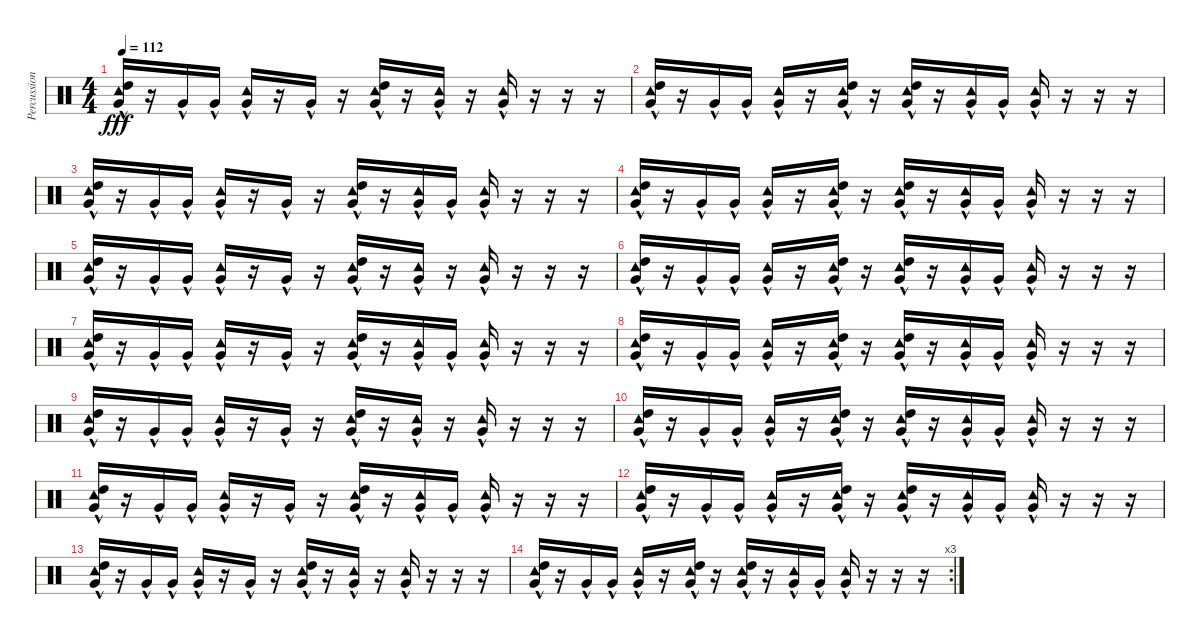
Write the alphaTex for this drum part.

\track ("Percussion" "Percussion") {instrument percussion}
\staff {score}
\articulation defaults
\ts (4 4)
\tempo 112
\clef neutral
\ks c
("Tambourine (hit)" "High Tom (hit)"{hac} "Very Low Tom (hit)"{hac}).16{dy fff} r.16 "Very Low Tom (hit)"{hac}.16 "Very Low Tom (hit)"{hac}.16 ("Tambourine (hit)" "Very Low Tom (hit)"{hac}).16 r.16 "Very Low Tom (hit)"{hac}.16 r.16 ("Tambourine (hit)" "High Tom (hit)"{hac} "Very Low Tom (hit)"{hac}).16 r.16 ("Tambourine (hit)" "Very Low Tom (hit)"{hac}).16 r.16 ("Tambourine (hit)" "Very Low Tom (hit)"{hac}).16 r.16 r.16 r.16 |
("Tambourine (hit)" "High Tom (hit)"{hac} "Very Low Tom (hit)"{hac}).16 r.16 "Very Low Tom (hit)"{hac}.16 "Very Low Tom (hit)"{hac}.16 ("Tambourine (hit)" "Very Low Tom (hit)"{hac}).16 r.16 ("Tambourine (hit)" "High Tom (hit)"{hac} "Very Low Tom (hit)"{hac}).16 r.16 ("Tambourine (hit)" "High Tom (hit)"{hac} "Very Low Tom (hit)"{hac}).16 r.16 ("Tambourine (hit)" "Very Low Tom (hit)"{hac}).16 "Very Low Tom (hit)"{hac}.16 ("Tambourine (hit)" "Very Low Tom (hit)"{hac}).16 r.16 r.16 r.16 |
("Tambourine (hit)" "High Tom (hit)"{hac} "Very Low Tom (hit)"{hac}).16 r.16 "Very Low Tom (hit)"{hac}.16 "Very Low Tom (hit)"{hac}.16 ("Tambourine (hit)" "Very Low Tom (hit)"{hac}).16 r.16 "Very Low Tom (hit)"{hac}.16 r.16 ("Tambourine (hit)" "High Tom (hit)"{hac} "Very Low Tom (hit)"{hac}).16 r.16 ("Tambourine (hit)" "Very Low Tom (hit)"{hac}).16 "Very Low Tom (hit)"{hac}.16 ("Tambourine (hit)" "Very Low Tom (hit)"{hac}).16 r.16 r.16 r.16 |
("Tambourine (hit)" "High Tom (hit)"{hac} "Very Low Tom (hit)"{hac}).16 r.16 "Very Low Tom (hit)"{hac}.16 "Very Low Tom (hit)"{hac}.16 ("Tambourine (hit)" "Very Low Tom (hit)"{hac}).16 r.16 ("Tambourine (hit)" "High Tom (hit)"{hac} "Very Low Tom (hit)"{hac}).16 r.16 ("Tambourine (hit)" "High Tom (hit)"{hac} "Very Low Tom (hit)"{hac}).16 r.16 ("Tambourine (hit)" "Very Low Tom (hit)"{hac}).16 "Very Low Tom (hit)"{hac}.16 ("Tambourine (hit)" "Very Low Tom (hit)"{hac}).16 r.16 r.16 r.16 |
("Tambourine (hit)" "High Tom (hit)"{hac} "Very Low Tom (hit)"{hac}).16 r.16 "Very Low Tom (hit)"{hac}.16 "Very Low Tom (hit)"{hac}.16 ("Tambourine (hit)" "Very Low Tom (hit)"{hac}).16 r.16 "Very Low Tom (hit)"{hac}.16 r.16 ("Tambourine (hit)" "High Tom (hit)"{hac} "Very Low Tom (hit)"{hac}).16 r.16 ("Tambourine (hit)" "Very Low Tom (hit)"{hac}).16 r.16 ("Tambourine (hit)" "Very Low Tom (hit)"{hac}).16 r.16 r.16 r.16 |
("Tambourine (hit)" "High Tom (hit)"{hac} "Very Low Tom (hit)"{hac}).16 r.16 "Very Low Tom (hit)"{hac}.16 "Very Low Tom (hit)"{hac}.16 ("Tambourine (hit)" "Very Low Tom (hit)"{hac}).16 r.16 ("Tambourine (hit)" "High Tom (hit)"{hac} "Very Low Tom (hit)"{hac}).16 r.16 ("Tambourine (hit)" "High Tom (hit)"{hac} "Very Low Tom (hit)"{hac}).16 r.16 ("Tambourine (hit)" "Very Low Tom (hit)"{hac}).16 "Very Low Tom (hit)"{hac}.16 ("Tambourine (hit)" "Very Low Tom (hit)"{hac}).16 r.16 r.16 r.16 |
("Tambourine (hit)" "High Tom (hit)"{hac} "Very Low Tom (hit)"{hac}).16 r.16 "Very Low Tom (hit)"{hac}.16 "Very Low Tom (hit)"{hac}.16 ("Tambourine (hit)" "Very Low Tom (hit)"{hac}).16 r.16 "Very Low Tom (hit)"{hac}.16 r.16 ("Tambourine (hit)" "High Tom (hit)"{hac} "Very Low Tom (hit)"{hac}).16 r.16 ("Tambourine (hit)" "Very Low Tom (hit)"{hac}).16 "Very Low Tom (hit)"{hac}.16 ("Tambourine (hit)" "Very Low Tom (hit)"{hac}).16 r.16 r.16 r.16 |
("Tambourine (hit)" "High Tom (hit)"{hac} "Very Low Tom (hit)"{hac}).16 r.16 "Very Low Tom (hit)"{hac}.16 "Very Low Tom (hit)"{hac}.16 ("Tambourine (hit)" "Very Low Tom (hit)"{hac}).16 r.16 ("Tambourine (hit)" "High Tom (hit)"{hac} "Very Low Tom (hit)"{hac}).16 r.16 ("Tambourine (hit)" "High Tom (hit)"{hac} "Very Low Tom (hit)"{hac}).16 r.16 ("Tambourine (hit)" "Very Low Tom (hit)"{hac}).16 "Very Low Tom (hit)"{hac}.16 ("Tambourine (hit)" "Very Low Tom (hit)"{hac}).16 r.16 r.16 r.16 |
("Tambourine (hit)" "High Tom (hit)"{hac} "Very Low Tom (hit)"{hac}).16 r.16 "Very Low Tom (hit)"{hac}.16 "Very Low Tom (hit)"{hac}.16 ("Tambourine (hit)" "Very Low Tom (hit)"{hac}).16 r.16 "Very Low Tom (hit)"{hac}.16 r.16 ("Tambourine (hit)" "High Tom (hit)"{hac} "Very Low Tom (hit)"{hac}).16 r.16 ("Tambourine (hit)" "Very Low Tom (hit)"{hac}).16 r.16 ("Tambourine (hit)" "Very Low Tom (hit)"{hac}).16 r.16 r.16 r.16 |
("Tambourine (hit)" "High Tom (hit)"{hac} "Very Low Tom (hit)"{hac}).16 r.16 "Very Low Tom (hit)"{hac}.16 "Very Low Tom (hit)"{hac}.16 ("Tambourine (hit)" "Very Low Tom (hit)"{hac}).16 r.16 ("Tambourine (hit)" "High Tom (hit)"{hac} "Very Low Tom (hit)"{hac}).16 r.16 ("Tambourine (hit)" "High Tom (hit)"{hac} "Very Low Tom (hit)"{hac}).16 r.16 ("Tambourine (hit)" "Very Low Tom (hit)"{hac}).16 "Very Low Tom (hit)"{hac}.16 ("Tambourine (hit)" "Very Low Tom (hit)"{hac}).16 r.16 r.16 r.16 |
("Tambourine (hit)" "High Tom (hit)"{hac} "Very Low Tom (hit)"{hac}).16 r.16 "Very Low Tom (hit)"{hac}.16 "Very Low Tom (hit)"{hac}.16 ("Tambourine (hit)" "Very Low Tom (hit)"{hac}).16 r.16 "Very Low Tom (hit)"{hac}.16 r.16 ("Tambourine (hit)" "High Tom (hit)"{hac} "Very Low Tom (hit)"{hac}).16 r.16 ("Tambourine (hit)" "Very Low Tom (hit)"{hac}).16 "Very Low Tom (hit)"{hac}.16 ("Tambourine (hit)" "Very Low Tom (hit)"{hac}).16 r.16 r.16 r.16 |
("Tambourine (hit)" "High Tom (hit)"{hac} "Very Low Tom (hit)"{hac}).16 r.16 "Very Low Tom (hit)"{hac}.16 "Very Low Tom (hit)"{hac}.16 ("Tambourine (hit)" "Very Low Tom (hit)"{hac}).16 r.16 ("Tambourine (hit)" "High Tom (hit)"{hac} "Very Low Tom (hit)"{hac}).16 r.16 ("Tambourine (hit)" "High Tom (hit)"{hac} "Very Low Tom (hit)"{hac}).16 r.16 ("Tambourine (hit)" "Very Low Tom (hit)"{hac}).16 "Very Low Tom (hit)"{hac}.16 ("Tambourine (hit)" "Very Low Tom (hit)"{hac}).16 r.16 r.16 r.16 |
("Tambourine (hit)" "High Tom (hit)"{hac} "Very Low Tom (hit)"{hac}).16 r.16 "Very Low Tom (hit)"{hac}.16 "Very Low Tom (hit)"{hac}.16 ("Tambourine (hit)" "Very Low Tom (hit)"{hac}).16 r.16 "Very Low Tom (hit)"{hac}.16 r.16 ("Tambourine (hit)" "High Tom (hit)"{hac} "Very Low Tom (hit)"{hac}).16 r.16 ("Tambourine (hit)" "Very Low Tom (hit)"{hac}).16 r.16 ("Tambourine (hit)" "Very Low Tom (hit)"{hac}).16 r.16 r.16 r.16 |
\rc 3
("Tambourine (hit)" "High Tom (hit)"{hac} "Very Low Tom (hit)"{hac}).16 r.16 "Very Low Tom (hit)"{hac}.16 "Very Low Tom (hit)"{hac}.16 ("Tambourine (hit)" "Very Low Tom (hit)"{hac}).16 r.16 ("Tambourine (hit)" "High Tom (hit)"{hac} "Very Low Tom (hit)"{hac}).16 r.16 ("Tambourine (hit)" "High Tom (hit)"{hac} "Very Low Tom (hit)"{hac}).16 r.16 ("Tambourine (hit)" "Very Low Tom (hit)"{hac}).16 "Very Low Tom (hit)"{hac}.16 ("Tambourine (hit)" "Very Low Tom (hit)"{hac}).16 r.16 r.16 r.16
